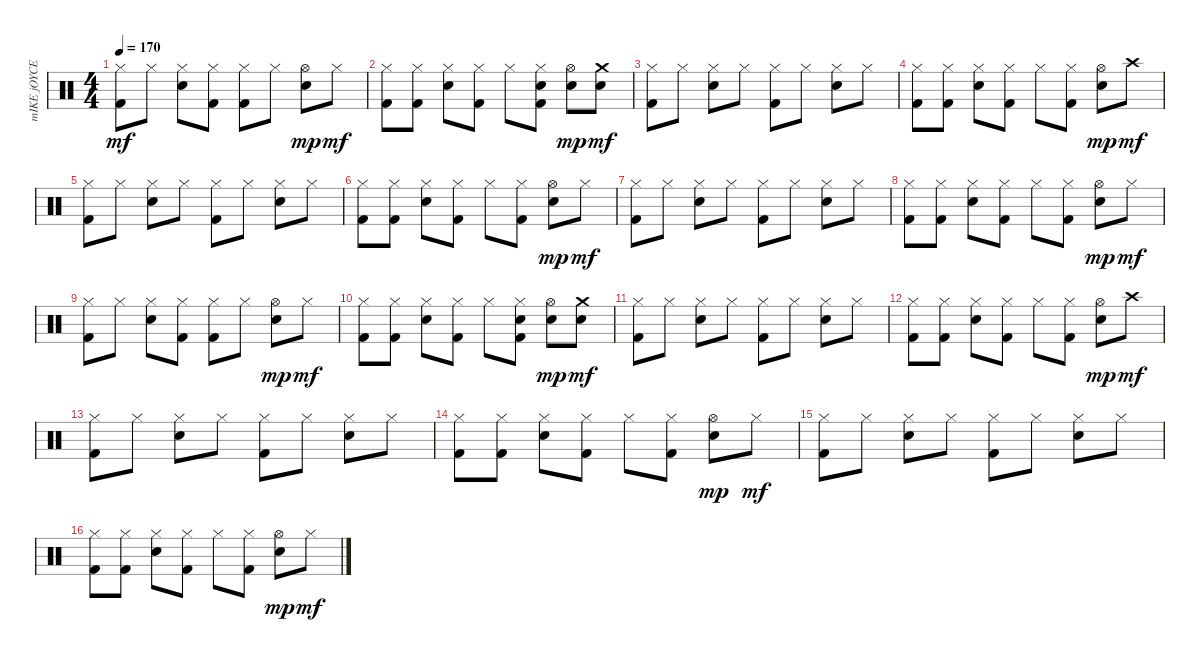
\track ("mIKE jOYCE" "mIKE jOYCE") {instrument percussion}
\staff {score}
\articulation defaults
\ts (4 4)
\tempo 170
\clef neutral
\ks c
("Hi-Hat (closed)" "Kick (hit) 2").8{dy mf} "Hi-Hat (closed)".8 ("Hi-Hat (closed)" "Electric Snare (hit)").8 ("Hi-Hat (closed)" "Kick (hit) 2").8 ("Hi-Hat (closed)" "Kick (hit) 2").8 "Hi-Hat (closed)".8 ("Hi-Hat (open)" "Electric Snare (hit)").8{dy mp} "Hi-Hat (closed)".8{dy mf} |
("Hi-Hat (closed)" "Kick (hit) 2").8 ("Hi-Hat (closed)" "Kick (hit) 2").8 ("Hi-Hat (closed)" "Electric Snare (hit)").8 ("Hi-Hat (closed)" "Kick (hit) 2").8 "Hi-Hat (closed)".8 ("Hi-Hat (closed)" "Electric Snare (hit)" "Kick (hit) 2").8 ("Hi-Hat (open)" "Electric Snare (hit)").8{dy mp} ("Crash medium (hit)" "Electric Snare (hit)").8{dy mf} |
("Hi-Hat (closed)" "Kick (hit) 2").8 "Hi-Hat (closed)".8 ("Hi-Hat (closed)" "Electric Snare (hit)").8 "Hi-Hat (closed)".8 ("Hi-Hat (closed)" "Kick (hit) 2").8 "Hi-Hat (closed)".8 ("Hi-Hat (closed)" "Electric Snare (hit)").8 "Hi-Hat (closed)".8 |
("Hi-Hat (closed)" "Kick (hit) 2").8 ("Hi-Hat (closed)" "Kick (hit) 2").8 ("Hi-Hat (closed)" "Electric Snare (hit)").8 ("Hi-Hat (closed)" "Kick (hit) 2").8 "Hi-Hat (closed)".8 ("Hi-Hat (closed)" "Kick (hit) 2").8 ("Hi-Hat (open)" "Electric Snare (hit)").8{dy mp} "Crash high (hit)".8{dy mf} |
("Hi-Hat (closed)" "Kick (hit) 2").8 "Hi-Hat (closed)".8 ("Hi-Hat (closed)" "Electric Snare (hit)").8 "Hi-Hat (closed)".8 ("Hi-Hat (closed)" "Kick (hit) 2").8 "Hi-Hat (closed)".8 ("Hi-Hat (closed)" "Electric Snare (hit)").8 "Hi-Hat (closed)".8 |
("Hi-Hat (closed)" "Kick (hit) 2").8 ("Hi-Hat (closed)" "Kick (hit) 2").8 ("Hi-Hat (closed)" "Electric Snare (hit)").8 ("Hi-Hat (closed)" "Kick (hit) 2").8 "Hi-Hat (closed)".8 ("Hi-Hat (closed)" "Kick (hit) 2").8 ("Hi-Hat (open)" "Electric Snare (hit)").8{dy mp} "Hi-Hat (closed)".8{dy mf} |
("Hi-Hat (closed)" "Kick (hit) 2").8 "Hi-Hat (closed)".8 ("Hi-Hat (closed)" "Electric Snare (hit)").8 "Hi-Hat (closed)".8 ("Hi-Hat (closed)" "Kick (hit) 2").8 "Hi-Hat (closed)".8 ("Hi-Hat (closed)" "Electric Snare (hit)").8 "Hi-Hat (closed)".8 |
("Hi-Hat (closed)" "Kick (hit) 2").8 ("Hi-Hat (closed)" "Kick (hit) 2").8 ("Hi-Hat (closed)" "Electric Snare (hit)").8 ("Hi-Hat (closed)" "Kick (hit) 2").8 "Hi-Hat (closed)".8 ("Hi-Hat (closed)" "Kick (hit) 2").8 ("Hi-Hat (open)" "Electric Snare (hit)").8{dy mp} "Hi-Hat (closed)".8{dy mf} |
("Hi-Hat (closed)" "Kick (hit) 2").8 "Hi-Hat (closed)".8 ("Hi-Hat (closed)" "Electric Snare (hit)").8 ("Hi-Hat (closed)" "Kick (hit) 2").8 ("Hi-Hat (closed)" "Kick (hit) 2").8 "Hi-Hat (closed)".8 ("Hi-Hat (open)" "Electric Snare (hit)").8{dy mp} "Hi-Hat (closed)".8{dy mf} |
("Hi-Hat (closed)" "Kick (hit) 2").8 ("Hi-Hat (closed)" "Kick (hit) 2").8 ("Hi-Hat (closed)" "Electric Snare (hit)").8 ("Hi-Hat (closed)" "Kick (hit) 2").8 "Hi-Hat (closed)".8 ("Hi-Hat (closed)" "Electric Snare (hit)" "Kick (hit) 2").8 ("Hi-Hat (open)" "Electric Snare (hit)").8{dy mp} ("Crash medium (hit)" "Electric Snare (hit)").8{dy mf} |
("Hi-Hat (closed)" "Kick (hit) 2").8 "Hi-Hat (closed)".8 ("Hi-Hat (closed)" "Electric Snare (hit)").8 "Hi-Hat (closed)".8 ("Hi-Hat (closed)" "Kick (hit) 2").8 "Hi-Hat (closed)".8 ("Hi-Hat (closed)" "Electric Snare (hit)").8 "Hi-Hat (closed)".8 |
("Hi-Hat (closed)" "Kick (hit) 2").8 ("Hi-Hat (closed)" "Kick (hit) 2").8 ("Hi-Hat (closed)" "Electric Snare (hit)").8 ("Hi-Hat (closed)" "Kick (hit) 2").8 "Hi-Hat (closed)".8 ("Hi-Hat (closed)" "Kick (hit) 2").8 ("Hi-Hat (open)" "Electric Snare (hit)").8{dy mp} "Crash high (hit)".8{dy mf} |
("Hi-Hat (closed)" "Kick (hit) 2").8 "Hi-Hat (closed)".8 ("Hi-Hat (closed)" "Electric Snare (hit)").8 "Hi-Hat (closed)".8 ("Hi-Hat (closed)" "Kick (hit) 2").8 "Hi-Hat (closed)".8 ("Hi-Hat (closed)" "Electric Snare (hit)").8 "Hi-Hat (closed)".8 |
("Hi-Hat (closed)" "Kick (hit) 2").8 ("Hi-Hat (closed)" "Kick (hit) 2").8 ("Hi-Hat (closed)" "Electric Snare (hit)").8 ("Hi-Hat (closed)" "Kick (hit) 2").8 "Hi-Hat (closed)".8 ("Hi-Hat (closed)" "Kick (hit) 2").8 ("Hi-Hat (open)" "Electric Snare (hit)").8{dy mp} "Hi-Hat (closed)".8{dy mf} |
("Hi-Hat (closed)" "Kick (hit) 2").8 "Hi-Hat (closed)".8 ("Hi-Hat (closed)" "Electric Snare (hit)").8 "Hi-Hat (closed)".8 ("Hi-Hat (closed)" "Kick (hit) 2").8 "Hi-Hat (closed)".8 ("Hi-Hat (closed)" "Electric Snare (hit)").8 "Hi-Hat (closed)".8 |
("Hi-Hat (closed)" "Kick (hit) 2").8 ("Hi-Hat (closed)" "Kick (hit) 2").8 ("Hi-Hat (closed)" "Electric Snare (hit)").8 ("Hi-Hat (closed)" "Kick (hit) 2").8 "Hi-Hat (closed)".8 ("Hi-Hat (closed)" "Kick (hit) 2").8 ("Hi-Hat (open)" "Electric Snare (hit)").8{dy mp} "Hi-Hat (closed)".8{dy mf}
